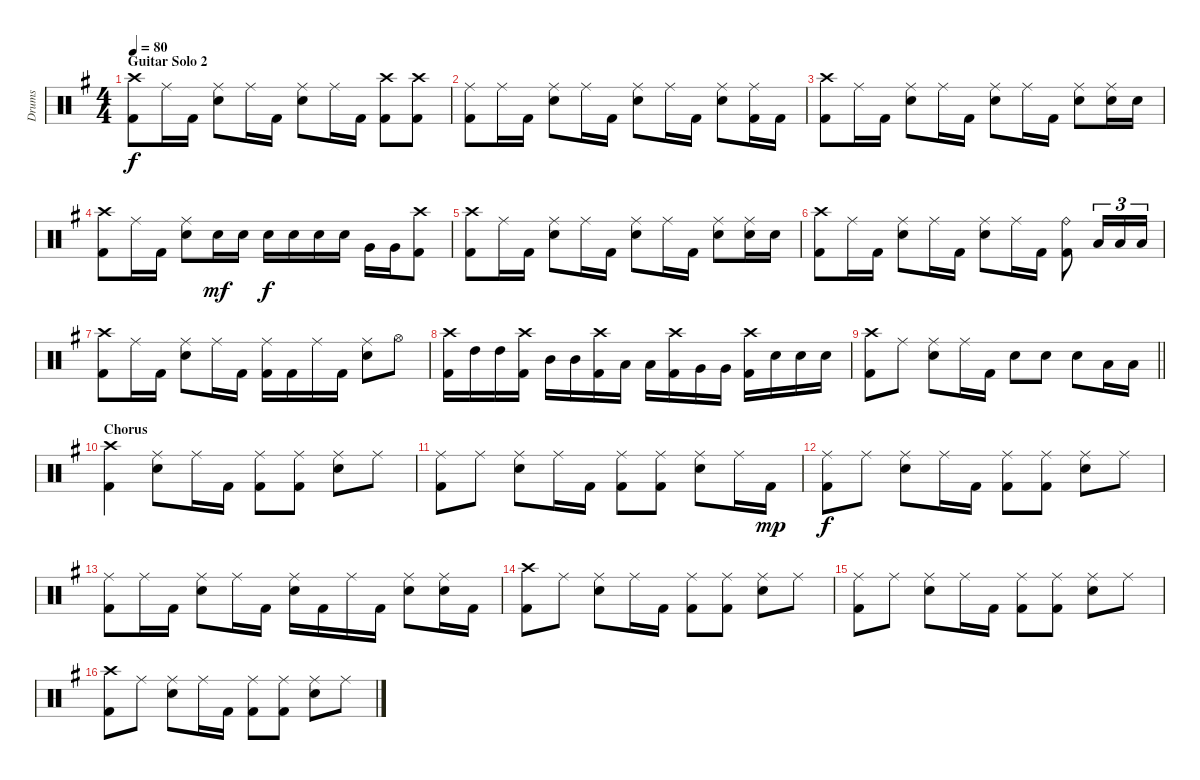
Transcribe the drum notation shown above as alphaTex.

\track ("Drums" "Drums") {instrument percussion}
\staff {score}
\articulation defaults
\ts (4 4)
\section ("" "Guitar Solo 2")
\tempo 80
\clef neutral
\ks g
("Crash high (hit)" "Kick (hit) 2").8{dy f} "Ride (middle)".16 "Kick (hit) 2".16 ("Ride (middle)" "Electric Snare (hit)").8 "Ride (middle)".16 "Kick (hit) 2".16 ("Ride (middle)" "Electric Snare (hit)").8 "Ride (middle)".16 "Kick (hit) 2".16 ("Crash high (hit)" "Kick (hit) 2").8 ("Crash high (hit)" "Kick (hit) 2").8 |
("Ride (middle)" "Kick (hit) 2").8 "Ride (middle)".16 "Kick (hit) 2".16 ("Ride (middle)" "Electric Snare (hit)").8 "Ride (middle)".16 "Kick (hit) 2".16 ("Ride (middle)" "Electric Snare (hit)").8 "Ride (middle)".16 "Kick (hit) 2".16 ("Ride (middle)" "Electric Snare (hit)").8 ("Ride (middle)" "Kick (hit) 2").16 "Kick (hit) 2".16 |
("Crash high (hit)" "Kick (hit) 2").8 "Ride (middle)".16 "Kick (hit) 2".16 ("Ride (middle)" "Electric Snare (hit)").8 "Ride (middle)".16 "Kick (hit) 2".16 ("Ride (middle)" "Electric Snare (hit)").8 "Ride (middle)".16 "Kick (hit) 2".16 ("Ride (middle)" "Electric Snare (hit)").8 ("Ride (middle)" "Electric Snare (hit)").16 "Electric Snare (hit)".16 |
("Crash high (hit)" "Kick (hit) 2").8 "Ride (middle)".16 "Kick (hit) 2".16 ("Ride (middle)" "Electric Snare (hit)").8 "Electric Snare (hit)".16{dy mf} "Electric Snare (hit)".16 "Electric Snare (hit)".16{dy f} "Electric Snare (hit)".16 "Electric Snare (hit)".16 "Electric Snare (hit)".16 "Very Low Tom (hit)".16 "Very Low Tom (hit)".16 ("Crash high (hit)" "Kick (hit) 2").8 |
("Crash high (hit)" "Kick (hit) 2").8 "Ride (middle)".16 "Kick (hit) 2".16 ("Ride (middle)" "Electric Snare (hit)").8 "Ride (middle)".16 "Kick (hit) 2".16 ("Ride (middle)" "Electric Snare (hit)").8 "Ride (middle)".16 "Kick (hit) 2".16 ("Ride (middle)" "Electric Snare (hit)").8 ("Ride (middle)" "Electric Snare (hit)").16 "Electric Snare (hit)".16 |
("Crash high (hit)" "Kick (hit) 2").8 "Ride (middle)".16 "Kick (hit) 2".16 ("Ride (middle)" "Electric Snare (hit)").8 "Ride (middle)".16 "Kick (hit) 2".16 ("Ride (middle)" "Electric Snare (hit)").8 "Ride (middle)".16 "Kick (hit) 2".16 ("Ride (bell)" "Kick (hit) 2").8 "Low Tom (hit)".16{tu (3 2)} "Low Tom (hit)".16{tu (3 2)} "Low Tom (hit)".16{tu (3 2)} |
("Crash high (hit)" "Kick (hit) 2").8 "Ride (middle)".16 "Kick (hit) 2".16 ("Ride (middle)" "Electric Snare (hit)").8 "Ride (middle)".16 "Kick (hit) 2".16 ("Ride (middle)" "Kick (hit) 2").16 "Kick (hit) 2".16 "Ride (middle)".16 "Kick (hit) 2".16 ("Ride (middle)" "Electric Snare (hit)").8 "Hi-Hat (open)".8 |
("Crash high (hit)" "Kick (hit) 2").16 "High Tom (hit)".16 "High Tom (hit)".16 ("Crash high (hit)" "Kick (hit) 2").16 "Mid Tom (hit)".16 "Mid Tom (hit)".16 ("Crash high (hit)" "Kick (hit) 2").16 "Low Tom (hit)".16 "Low Tom (hit)".16 ("Crash high (hit)" "Kick (hit) 2").16 "Very Low Tom (hit)".16 "Very Low Tom (hit)".16 ("Crash high (hit)" "Kick (hit) 2").16 "Electric Snare (hit)".16 "Electric Snare (hit)".16 "Electric Snare (hit)".16 |
\barLineRight lightlight
("Crash high (hit)" "Kick (hit) 2").8 "Ride (middle)".8 ("Ride (middle)" "Electric Snare (hit)").8 "Ride (middle)".16 "Kick (hit) 2".16 "Electric Snare (hit)".8 "Electric Snare (hit)".8 "Electric Snare (hit)".8 "Low Tom (hit)".16 "Low Tom (hit)".16 |
\section ("" "Chorus")
("Crash high (hit)" "Kick (hit) 2").4 ("Ride (middle)" "Electric Snare (hit)").8 "Ride (middle)".16 "Kick (hit) 2".16 ("Ride (middle)" "Kick (hit) 2").8 ("Ride (middle)" "Kick (hit) 2").8 ("Ride (middle)" "Electric Snare (hit)").8 "Ride (middle)".8 |
("Ride (middle)" "Kick (hit) 2").8 "Ride (middle)".8 ("Ride (middle)" "Electric Snare (hit)").8 "Ride (middle)".16 "Kick (hit) 2".16 ("Ride (middle)" "Kick (hit) 2").8 ("Ride (middle)" "Kick (hit) 2").8 ("Ride (middle)" "Electric Snare (hit)").8 "Ride (middle)".16 "Kick (hit) 2".16{dy mp} |
("Ride (middle)" "Kick (hit) 2").8{dy f} "Ride (middle)".8 ("Ride (middle)" "Electric Snare (hit)").8 "Ride (middle)".16 "Kick (hit) 2".16 ("Ride (middle)" "Kick (hit) 2").8 ("Ride (middle)" "Kick (hit) 2").8 ("Ride (middle)" "Electric Snare (hit)").8 "Ride (middle)".8 |
("Ride (middle)" "Kick (hit) 2").8 "Ride (middle)".16 "Kick (hit) 2".16 ("Ride (middle)" "Electric Snare (hit)").8 "Ride (middle)".16 "Kick (hit) 2".16 ("Ride (middle)" "Electric Snare (hit)").16 "Kick (hit) 2".16 "Ride (middle)".16 "Kick (hit) 2".16 ("Ride (middle)" "Electric Snare (hit)").8 ("Ride (middle)" "Electric Snare (hit)").16 "Kick (hit) 2".16 |
("Crash high (hit)" "Kick (hit) 2").8 "Ride (middle)".8 ("Ride (middle)" "Electric Snare (hit)").8 "Ride (middle)".16 "Kick (hit) 2".16 ("Ride (middle)" "Kick (hit) 2").8 ("Ride (middle)" "Kick (hit) 2").8 ("Ride (middle)" "Electric Snare (hit)").8 "Ride (middle)".8 |
("Ride (middle)" "Kick (hit) 2").8 "Ride (middle)".8 ("Ride (middle)" "Electric Snare (hit)").8 "Ride (middle)".16 "Kick (hit) 2".16 ("Ride (middle)" "Kick (hit) 2").8 ("Ride (middle)" "Kick (hit) 2").8 ("Ride (middle)" "Electric Snare (hit)").8 "Ride (middle)".8 |
("Crash high (hit)" "Kick (hit) 2").8 "Ride (middle)".8 ("Ride (middle)" "Electric Snare (hit)").8 "Ride (middle)".16 "Kick (hit) 2".16 ("Ride (middle)" "Kick (hit) 2").8 ("Ride (middle)" "Kick (hit) 2").8 ("Ride (middle)" "Electric Snare (hit)").8 "Ride (middle)".8
